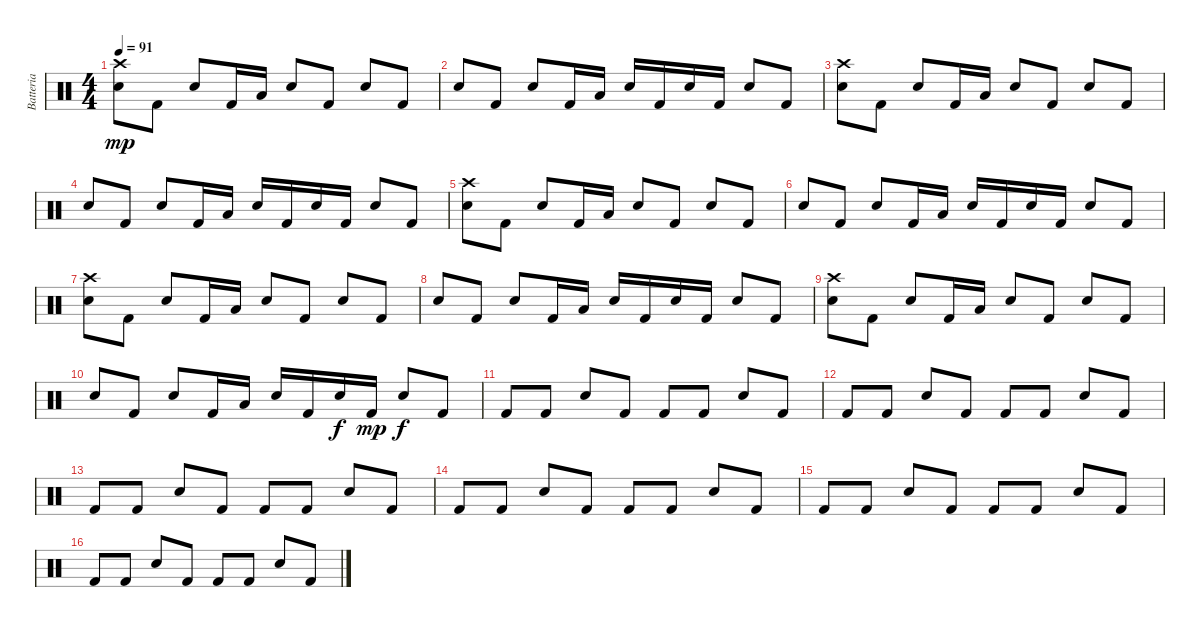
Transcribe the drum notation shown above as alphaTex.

\track ("Batteria" "Batteria") {instrument percussion}
\staff {score}
\articulation defaults
\ts (4 4)
\tempo 91
\clef neutral
\ks c
("Crash high (hit)" "Electric Snare (hit)").8{dy mp} "Kick (hit) 2".8 "Electric Snare (hit)".8 "Kick (hit) 2".16 "Low Floor Tom (hit)".16 "Electric Snare (hit)".8 "Kick (hit) 2".8 "Electric Snare (hit)".8 "Kick (hit) 2".8 |
"Electric Snare (hit)".8 "Kick (hit) 2".8 "Electric Snare (hit)".8 "Kick (hit) 2".16 "Low Floor Tom (hit)".16 "Electric Snare (hit)".16 "Kick (hit) 2".16 "Electric Snare (hit)".16 "Kick (hit) 2".16 "Electric Snare (hit)".8 "Kick (hit) 2".8 |
("Crash high (hit)" "Electric Snare (hit)").8 "Kick (hit) 2".8 "Electric Snare (hit)".8 "Kick (hit) 2".16 "Low Floor Tom (hit)".16 "Electric Snare (hit)".8 "Kick (hit) 2".8 "Electric Snare (hit)".8 "Kick (hit) 2".8 |
"Electric Snare (hit)".8 "Kick (hit) 2".8 "Electric Snare (hit)".8 "Kick (hit) 2".16 "Low Floor Tom (hit)".16 "Electric Snare (hit)".16 "Kick (hit) 2".16 "Electric Snare (hit)".16 "Kick (hit) 2".16 "Electric Snare (hit)".8 "Kick (hit) 2".8 |
("Crash high (hit)" "Electric Snare (hit)").8 "Kick (hit) 2".8 "Electric Snare (hit)".8 "Kick (hit) 2".16 "Low Floor Tom (hit)".16 "Electric Snare (hit)".8 "Kick (hit) 2".8 "Electric Snare (hit)".8 "Kick (hit) 2".8 |
"Electric Snare (hit)".8 "Kick (hit) 2".8 "Electric Snare (hit)".8 "Kick (hit) 2".16 "Low Floor Tom (hit)".16 "Electric Snare (hit)".16 "Kick (hit) 2".16 "Electric Snare (hit)".16 "Kick (hit) 2".16 "Electric Snare (hit)".8 "Kick (hit) 2".8 |
("Crash high (hit)" "Electric Snare (hit)").8 "Kick (hit) 2".8 "Electric Snare (hit)".8 "Kick (hit) 2".16 "Low Floor Tom (hit)".16 "Electric Snare (hit)".8 "Kick (hit) 2".8 "Electric Snare (hit)".8 "Kick (hit) 2".8 |
"Electric Snare (hit)".8 "Kick (hit) 2".8 "Electric Snare (hit)".8 "Kick (hit) 2".16 "Low Floor Tom (hit)".16 "Electric Snare (hit)".16 "Kick (hit) 2".16 "Electric Snare (hit)".16 "Kick (hit) 2".16 "Electric Snare (hit)".8 "Kick (hit) 2".8 |
("Crash high (hit)" "Electric Snare (hit)").8 "Kick (hit) 2".8 "Electric Snare (hit)".8 "Kick (hit) 2".16 "Low Floor Tom (hit)".16 "Electric Snare (hit)".8 "Kick (hit) 2".8 "Electric Snare (hit)".8 "Kick (hit) 2".8 |
"Electric Snare (hit)".8 "Kick (hit) 2".8 "Electric Snare (hit)".8 "Kick (hit) 2".16 "Low Floor Tom (hit)".16 "Electric Snare (hit)".16 "Kick (hit) 2".16 "Electric Snare (hit)".16{dy f} "Kick (hit) 2".16{dy mp} "Electric Snare (hit)".8{dy f} "Kick (hit) 2".8 |
"Kick (hit) 2".8 "Kick (hit) 2".8 "Electric Snare (hit)".8 "Kick (hit) 2".8 "Kick (hit) 2".8 "Kick (hit) 2".8 "Electric Snare (hit)".8 "Kick (hit) 2".8 |
"Kick (hit) 2".8 "Kick (hit) 2".8 "Electric Snare (hit)".8 "Kick (hit) 2".8 "Kick (hit) 2".8 "Kick (hit) 2".8 "Electric Snare (hit)".8 "Kick (hit) 2".8 |
"Kick (hit) 2".8 "Kick (hit) 2".8 "Electric Snare (hit)".8 "Kick (hit) 2".8 "Kick (hit) 2".8 "Kick (hit) 2".8 "Electric Snare (hit)".8 "Kick (hit) 2".8 |
"Kick (hit) 2".8 "Kick (hit) 2".8 "Electric Snare (hit)".8 "Kick (hit) 2".8 "Kick (hit) 2".8 "Kick (hit) 2".8 "Electric Snare (hit)".8 "Kick (hit) 2".8 |
"Kick (hit) 2".8 "Kick (hit) 2".8 "Electric Snare (hit)".8 "Kick (hit) 2".8 "Kick (hit) 2".8 "Kick (hit) 2".8 "Electric Snare (hit)".8 "Kick (hit) 2".8 |
"Kick (hit) 2".8 "Kick (hit) 2".8 "Electric Snare (hit)".8 "Kick (hit) 2".8 "Kick (hit) 2".8 "Kick (hit) 2".8 "Electric Snare (hit)".8 "Kick (hit) 2".8
